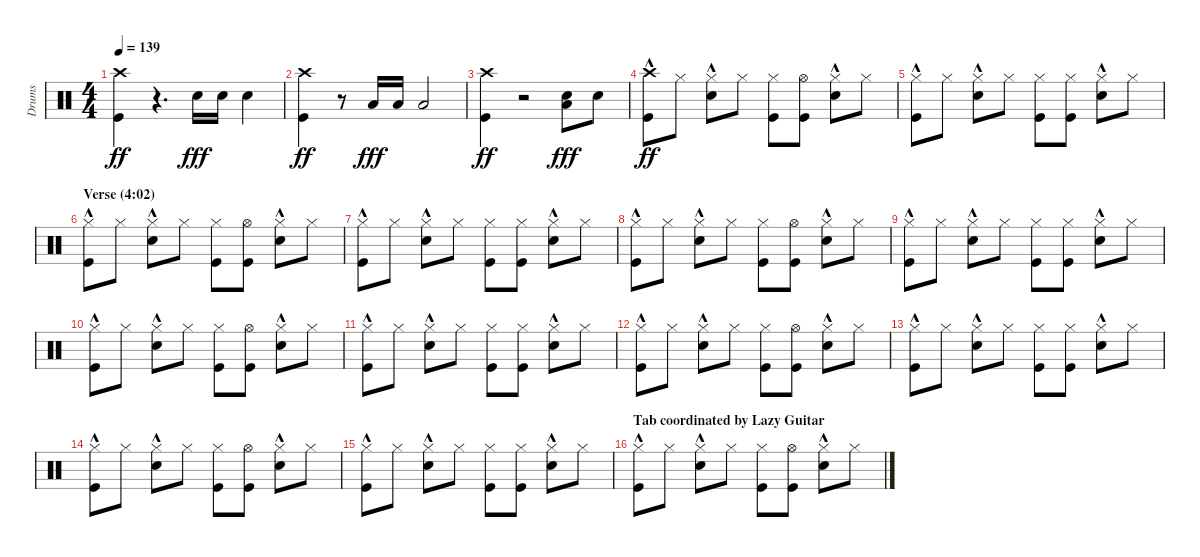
\track ("Drums" "Drums") {instrument percussion}
\staff {score}
\articulation defaults
\ts (4 4)
\tempo 139
\clef neutral
\ks c
("Crash high (hit)" "Kick (hit)").4{dy ff} r.4{d} "Snare (hit) 2".16{dy fff} "Snare (hit) 2".16 "Snare (hit) 2".4 |
("Crash high (hit)" "Kick (hit)").4{dy ff} r.8 "Low Floor Tom (hit)".16{dy fff} "Low Floor Tom (hit)".16 "Low Floor Tom (hit)".2 |
("Crash high (hit)" "Kick (hit)").4{dy ff} r.2 ("Low Floor Tom (hit)" "Snare (hit) 2").8{dy fff} "Snare (hit) 2".8 |
("Crash high (hit)" "Kick (hit)"{hac}).8{dy ff} "Hi-Hat (closed)".8 ("Hi-Hat (closed)" "Snare (hit) 2"{hac}).8 "Hi-Hat (closed)".8 ("Hi-Hat (closed)" "Kick (hit)").8 ("Hi-Hat (open)" "Kick (hit)").8 ("Hi-Hat (closed)" "Snare (hit) 2"{hac}).8 "Hi-Hat (closed)".8 |
("Hi-Hat (closed)" "Kick (hit)"{hac}).8 "Hi-Hat (closed)".8 ("Hi-Hat (closed)" "Snare (hit) 2"{hac}).8 "Hi-Hat (closed)".8 ("Hi-Hat (closed)" "Kick (hit)").8 ("Hi-Hat (closed)" "Kick (hit)").8 ("Hi-Hat (closed)" "Snare (hit) 2"{hac}).8 "Hi-Hat (closed)".8 |
\section ("" "Verse (4:02)")
("Hi-Hat (closed)" "Kick (hit)"{hac}).8 "Hi-Hat (closed)".8 ("Hi-Hat (closed)" "Snare (hit) 2"{hac}).8 "Hi-Hat (closed)".8 ("Hi-Hat (closed)" "Kick (hit)").8 ("Hi-Hat (open)" "Kick (hit)").8 ("Hi-Hat (closed)" "Snare (hit) 2"{hac}).8 "Hi-Hat (closed)".8 |
("Hi-Hat (closed)" "Kick (hit)"{hac}).8 "Hi-Hat (closed)".8 ("Hi-Hat (closed)" "Snare (hit) 2"{hac}).8 "Hi-Hat (closed)".8 ("Hi-Hat (closed)" "Kick (hit)").8 ("Hi-Hat (closed)" "Kick (hit)").8 ("Hi-Hat (closed)" "Snare (hit) 2"{hac}).8 "Hi-Hat (closed)".8 |
("Hi-Hat (closed)" "Kick (hit)"{hac}).8 "Hi-Hat (closed)".8 ("Hi-Hat (closed)" "Snare (hit) 2"{hac}).8 "Hi-Hat (closed)".8 ("Hi-Hat (closed)" "Kick (hit)").8 ("Hi-Hat (open)" "Kick (hit)").8 ("Hi-Hat (closed)" "Snare (hit) 2"{hac}).8 "Hi-Hat (closed)".8 |
("Hi-Hat (closed)" "Kick (hit)"{hac}).8 "Hi-Hat (closed)".8 ("Hi-Hat (closed)" "Snare (hit) 2"{hac}).8 "Hi-Hat (closed)".8 ("Hi-Hat (closed)" "Kick (hit)").8 ("Hi-Hat (closed)" "Kick (hit)").8 ("Hi-Hat (closed)" "Snare (hit) 2"{hac}).8 "Hi-Hat (closed)".8 |
("Hi-Hat (closed)" "Kick (hit)"{hac}).8 "Hi-Hat (closed)".8 ("Hi-Hat (closed)" "Snare (hit) 2"{hac}).8 "Hi-Hat (closed)".8 ("Hi-Hat (closed)" "Kick (hit)").8 ("Hi-Hat (open)" "Kick (hit)").8 ("Hi-Hat (closed)" "Snare (hit) 2"{hac}).8 "Hi-Hat (closed)".8 |
("Hi-Hat (closed)" "Kick (hit)"{hac}).8 "Hi-Hat (closed)".8 ("Hi-Hat (closed)" "Snare (hit) 2"{hac}).8 "Hi-Hat (closed)".8 ("Hi-Hat (closed)" "Kick (hit)").8 ("Hi-Hat (closed)" "Kick (hit)").8 ("Hi-Hat (closed)" "Snare (hit) 2"{hac}).8 "Hi-Hat (closed)".8 |
("Hi-Hat (closed)" "Kick (hit)"{hac}).8 "Hi-Hat (closed)".8 ("Hi-Hat (closed)" "Snare (hit) 2"{hac}).8 "Hi-Hat (closed)".8 ("Hi-Hat (closed)" "Kick (hit)").8 ("Hi-Hat (open)" "Kick (hit)").8 ("Hi-Hat (closed)" "Snare (hit) 2"{hac}).8 "Hi-Hat (closed)".8 |
("Hi-Hat (closed)" "Kick (hit)"{hac}).8 "Hi-Hat (closed)".8 ("Hi-Hat (closed)" "Snare (hit) 2"{hac}).8 "Hi-Hat (closed)".8 ("Hi-Hat (closed)" "Kick (hit)").8 ("Hi-Hat (closed)" "Kick (hit)").8 ("Hi-Hat (closed)" "Snare (hit) 2"{hac}).8 "Hi-Hat (closed)".8 |
("Hi-Hat (closed)" "Kick (hit)"{hac}).8 "Hi-Hat (closed)".8 ("Hi-Hat (closed)" "Snare (hit) 2"{hac}).8 "Hi-Hat (closed)".8 ("Hi-Hat (closed)" "Kick (hit)").8 ("Hi-Hat (open)" "Kick (hit)").8 ("Hi-Hat (closed)" "Snare (hit) 2"{hac}).8 "Hi-Hat (closed)".8 |
("Hi-Hat (closed)" "Kick (hit)"{hac}).8 "Hi-Hat (closed)".8 ("Hi-Hat (closed)" "Snare (hit) 2"{hac}).8 "Hi-Hat (closed)".8 ("Hi-Hat (closed)" "Kick (hit)").8 ("Hi-Hat (closed)" "Kick (hit)").8 ("Hi-Hat (closed)" "Snare (hit) 2"{hac}).8 "Hi-Hat (closed)".8 |
\section ("" "Tab coordinated by Lazy Guitar")
("Hi-Hat (closed)" "Kick (hit)"{hac}).8 "Hi-Hat (closed)".8 ("Hi-Hat (closed)" "Snare (hit) 2"{hac}).8 "Hi-Hat (closed)".8 ("Hi-Hat (closed)" "Kick (hit)").8 ("Hi-Hat (open)" "Kick (hit)").8 ("Hi-Hat (closed)" "Snare (hit) 2"{hac}).8 "Hi-Hat (closed)".8
